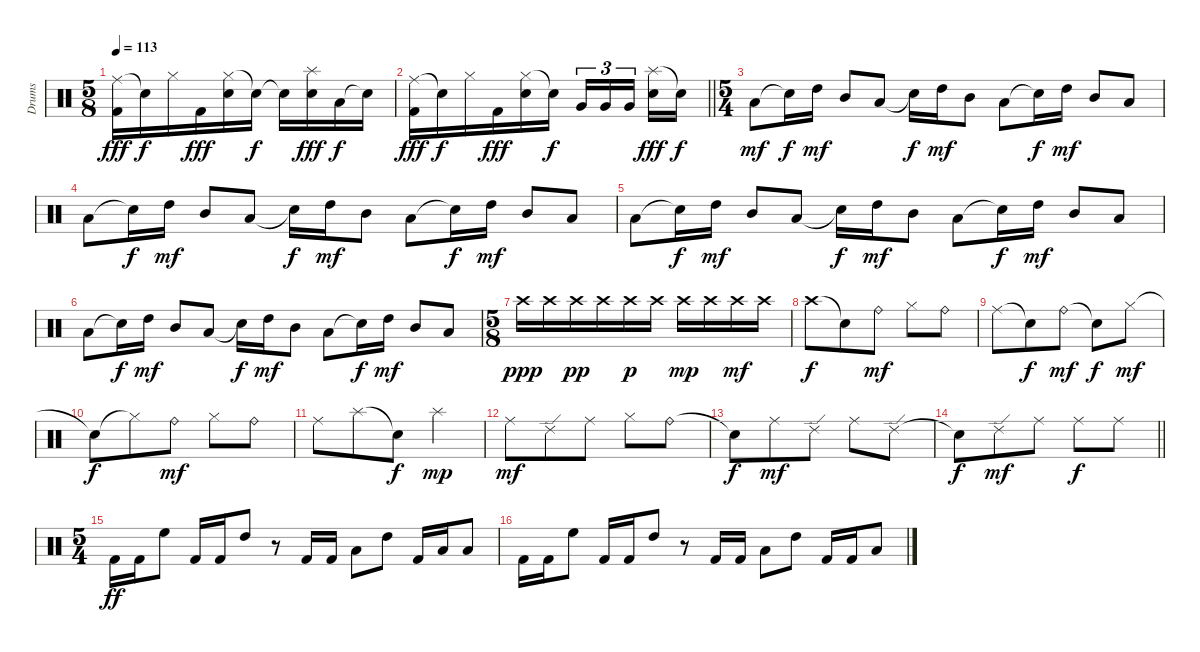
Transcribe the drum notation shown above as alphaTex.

\track ("Drums" "Drums") {instrument percussion}
\staff {score}
\articulation defaults
\ts (5 8)
\tempo 113
\clef neutral
\ks c
("Ride (middle)" "Kick (hit) 2").16{dy fff} "Snare (hit)"{t}.16{dy f} "Hi-Hat (closed)".16 "Kick (hit) 2".16{dy fff} ("Hi-Hat (closed)" "Snare (hit) 2").16 "Snare (hit)"{t}.16{dy f} "Snare (hit)"{t}.16 ("Splash (hit)" "Snare (hit) 2").16{dy fff} "Low Tom (hit)".16{dy f} "Snare (hit)"{t}.16 |
\barLineRight lightlight
("Ride (middle)" "Kick (hit) 2").16{dy fff} "Snare (hit)"{t}.16{dy f} "Hi-Hat (closed)".16 "Kick (hit) 2".16{dy fff} ("Hi-Hat (closed)" "Snare (hit) 2").16 "Snare (hit)"{t}.16{dy f} "Very Low Tom (hit)".16{tu (3 2)} "Very Low Tom (hit)".16{tu (3 2)} "Very Low Tom (hit)".16{tu (3 2)} ("Splash (hit)" "Snare (hit) 2").16{dy fff} "Snare (hit)"{t}.16{dy f} |
\ts (5 4)
\section ("" "")
"Low Tom (hit)".8{dy mf} "Snare (hit)"{t}.16{dy f} "High Tom (hit)".16{dy mf} "Mid Tom (hit)".8 "Low Tom (hit)".8 "Snare (hit)"{t}.16{dy f} "High Tom (hit)".16{dy mf} "Mid Tom (hit)".8 "Low Tom (hit)".8 "Snare (hit)"{t}.16{dy f} "High Tom (hit)".16{dy mf} "Mid Tom (hit)".8 "Low Tom (hit)".8 |
"Low Tom (hit)".8 "Snare (hit)"{t}.16{dy f} "High Tom (hit)".16{dy mf} "Mid Tom (hit)".8 "Low Tom (hit)".8 "Snare (hit)"{t}.16{dy f} "High Tom (hit)".16{dy mf} "Mid Tom (hit)".8 "Low Tom (hit)".8 "Snare (hit)"{t}.16{dy f} "High Tom (hit)".16{dy mf} "Mid Tom (hit)".8 "Low Tom (hit)".8 |
"Low Tom (hit)".8 "Snare (hit)"{t}.16{dy f} "High Tom (hit)".16{dy mf} "Mid Tom (hit)".8 "Low Tom (hit)".8 "Snare (hit)"{t}.16{dy f} "High Tom (hit)".16{dy mf} "Mid Tom (hit)".8 "Low Tom (hit)".8 "Snare (hit)"{t}.16{dy f} "High Tom (hit)".16{dy mf} "Mid Tom (hit)".8 "Low Tom (hit)".8 |
"Low Tom (hit)".8 "Snare (hit)"{t}.16{dy f} "High Tom (hit)".16{dy mf} "Mid Tom (hit)".8 "Low Tom (hit)".8 "Snare (hit)"{t}.16{dy f} "High Tom (hit)".16{dy mf} "Mid Tom (hit)".8 "Low Tom (hit)".8 "Snare (hit)"{t}.16{dy f} "High Tom (hit)".16{dy mf} "Mid Tom (hit)".8 "Low Tom (hit)".8 |
\ts (5 8)
"Crash high (hit)".16{dy ppp} "Crash high (hit)".16 "Crash high (hit)".16{dy pp} "Crash high (hit)".16 "Crash high (hit)".16{dy p} "Crash high (hit)".16 "Crash high (hit)".16{dy mp} "Crash high (hit)".16 "Crash high (hit)".16{dy mf} "Crash high (hit)".16 |
"Crash high (hit)".8{dy f} "Snare (hit)"{t}.8 "Ride (bell)".8{dy mf} "Hi-Hat (closed)".8 "Ride (bell)".8 |
"Ride (middle)".8 "Snare (hit)"{t}.8{dy f} "Ride (bell)".8{dy mf} "Snare (hit)"{t}.8{dy f} "Hi-Hat (closed)".8{dy mf} |
"Snare (hit)"{t}.8{dy f} "Hi-Hat (closed)"{t}.8 "Ride (bell)".8{dy mf} "Hi-Hat (closed)".8 "Ride (bell)".8 |
"Ride (middle)".8 "Splash (hit)".8 "Snare (hit)"{t}.8{dy f} "Splash (hit)".4{dy mp} |
"Ride (middle)".8{dy mf} "Ride (edge) 2".8 "Ride (middle)".8 "Hi-Hat (closed)".8 "Ride (bell)".8 |
"Snare (hit)"{t}.8{dy f} "Ride (middle)".8{dy mf} "Ride (edge) 2".8 "Ride (middle)".8 "Ride (edge) 2".8 |
\barLineRight lightlight "Snare (hit)"{t}.8{dy f} "Ride (edge) 2".8{dy mf} "Ride (middle)".8 "Ride (middle)".8{dy f} "Ride (middle)".8
|
\ts (5 4)
\section ("" "")
"Kick (hit) 2".16{dy ff} "Kick (hit) 2".16 "High Floor Tom (hit)".8 "Kick (hit) 2".16 "Kick (hit) 2".16 "High Tom (hit)".8 r.8 "Kick (hit) 2".16 "Kick (hit) 2".16 "Low Tom (hit)".8 "High Tom (hit)".8 "Kick (hit) 2".16 "Low Tom (hit)".16 "Low Floor Tom (hit)".8 |
"Kick (hit) 2".16 "Kick (hit) 2".16 "High Floor Tom (hit)".8 "Kick (hit) 2".16 "Kick (hit) 2".16 "High Tom (hit)".8 r.8 "Kick (hit) 2".16 "Kick (hit) 2".16 "Low Tom (hit)".8 "High Tom (hit)".8 "Kick (hit) 2".16 "Kick (hit) 2".16 "Low Floor Tom (hit)".8
